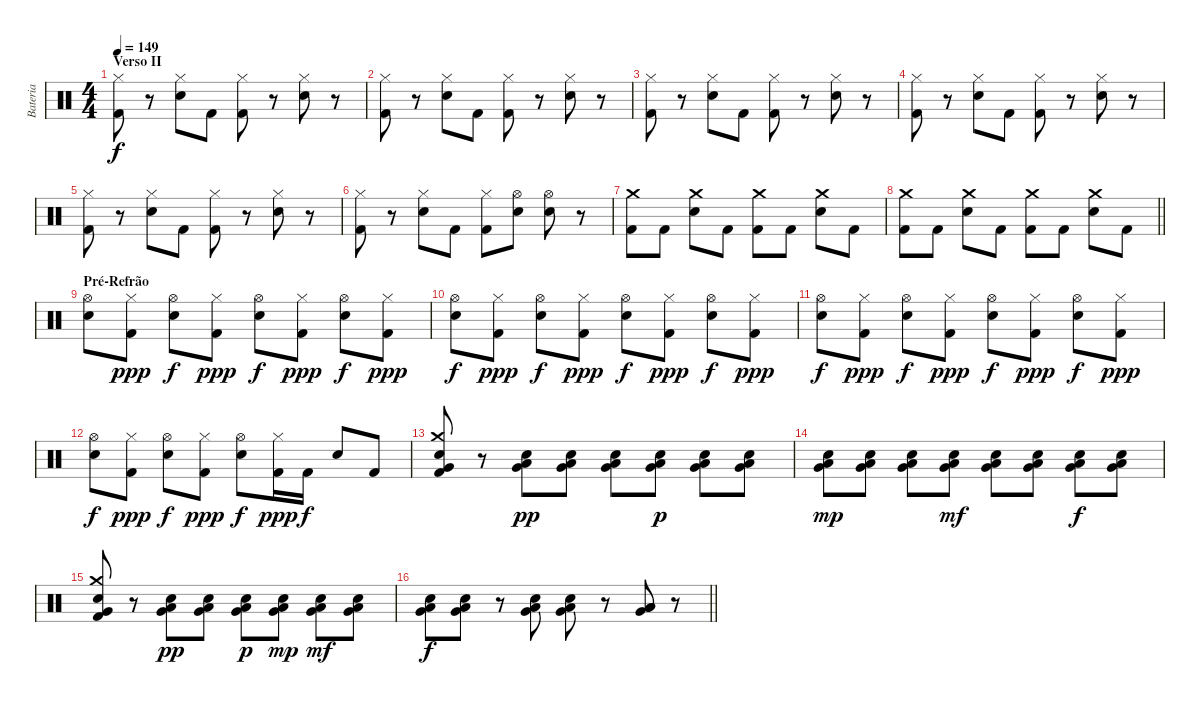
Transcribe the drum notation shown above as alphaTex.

\track ("Bateria" "Bateria") {instrument percussion}
\staff {score}
\articulation defaults
\ts (4 4)
\section ("" "Verso II")
\tempo 149
\clef neutral
\ks c
("Hi-Hat (closed)" "Kick (hit) 2").8{dy f} r.8 ("Hi-Hat (closed)" "Electric Snare (hit)").8 "Kick (hit) 2".8 ("Hi-Hat (closed)" "Kick (hit) 2").8 r.8 ("Hi-Hat (closed)" "Electric Snare (hit)").8 r.8 |
("Hi-Hat (closed)" "Kick (hit) 2").8 r.8 ("Hi-Hat (closed)" "Electric Snare (hit)").8 "Kick (hit) 2".8 ("Hi-Hat (closed)" "Kick (hit) 2").8 r.8 ("Hi-Hat (closed)" "Electric Snare (hit)").8 r.8 |
("Hi-Hat (closed)" "Kick (hit) 2").8 r.8 ("Hi-Hat (closed)" "Electric Snare (hit)").8 "Kick (hit) 2".8 ("Hi-Hat (closed)" "Kick (hit) 2").8 r.8 ("Hi-Hat (closed)" "Electric Snare (hit)").8 r.8 |
("Hi-Hat (closed)" "Kick (hit) 2").8 r.8 ("Hi-Hat (closed)" "Electric Snare (hit)").8 "Kick (hit) 2".8 ("Hi-Hat (closed)" "Kick (hit) 2").8 r.8 ("Hi-Hat (closed)" "Electric Snare (hit)").8 r.8 |
("Hi-Hat (closed)" "Kick (hit) 2").8 r.8 ("Hi-Hat (closed)" "Electric Snare (hit)").8 "Kick (hit) 2".8 ("Hi-Hat (closed)" "Kick (hit) 2").8 r.8 ("Hi-Hat (closed)" "Electric Snare (hit)").8 r.8 |
("Hi-Hat (closed)" "Kick (hit) 2").8 r.8 ("Hi-Hat (closed)" "Electric Snare (hit)").8 "Kick (hit) 2".8 ("Hi-Hat (closed)" "Kick (hit) 2").8 ("Hi-Hat (open)" "Electric Snare (hit)").8 ("Hi-Hat (open)" "Electric Snare (hit)").8 r.8 |
("Crash medium (hit)" "Kick (hit) 2").8 "Kick (hit) 2".8 ("Crash medium (hit)" "Electric Snare (hit)").8 "Kick (hit) 2".8 ("Crash medium (hit)" "Kick (hit) 2").8 "Kick (hit) 2".8 ("Crash medium (hit)" "Electric Snare (hit)").8 "Kick (hit) 2".8 |
\barLineRight lightlight
("Crash medium (hit)" "Kick (hit) 2").8 "Kick (hit) 2".8 ("Crash medium (hit)" "Electric Snare (hit)").8 "Kick (hit) 2".8 ("Crash medium (hit)" "Kick (hit) 2").8 "Kick (hit) 2".8 ("Crash medium (hit)" "Electric Snare (hit)").8 "Kick (hit) 2".8 |
\section ("" "Pré-Refrão")
("Hi-Hat (open)" "Electric Snare (hit)").8 ("Hi-Hat (closed)" "Kick (hit) 2").8{dy ppp} ("Hi-Hat (open)" "Electric Snare (hit)").8{dy f} ("Hi-Hat (closed)" "Kick (hit) 2").8{dy ppp} ("Hi-Hat (open)" "Electric Snare (hit)").8{dy f} ("Hi-Hat (closed)" "Kick (hit) 2").8{dy ppp} ("Hi-Hat (open)" "Electric Snare (hit)").8{dy f} ("Hi-Hat (closed)" "Kick (hit) 2").8{dy ppp} |
("Hi-Hat (open)" "Electric Snare (hit)").8{dy f} ("Hi-Hat (closed)" "Kick (hit) 2").8{dy ppp} ("Hi-Hat (open)" "Electric Snare (hit)").8{dy f} ("Hi-Hat (closed)" "Kick (hit) 2").8{dy ppp} ("Hi-Hat (open)" "Electric Snare (hit)").8{dy f} ("Hi-Hat (closed)" "Kick (hit) 2").8{dy ppp} ("Hi-Hat (open)" "Electric Snare (hit)").8{dy f} ("Hi-Hat (closed)" "Kick (hit) 2").8{dy ppp} |
("Hi-Hat (open)" "Electric Snare (hit)").8{dy f} ("Hi-Hat (closed)" "Kick (hit) 2").8{dy ppp} ("Hi-Hat (open)" "Electric Snare (hit)").8{dy f} ("Hi-Hat (closed)" "Kick (hit) 2").8{dy ppp} ("Hi-Hat (open)" "Electric Snare (hit)").8{dy f} ("Hi-Hat (closed)" "Kick (hit) 2").8{dy ppp} ("Hi-Hat (open)" "Electric Snare (hit)").8{dy f} ("Hi-Hat (closed)" "Kick (hit) 2").8{dy ppp} |
("Hi-Hat (open)" "Electric Snare (hit)").8{dy f} ("Hi-Hat (closed)" "Kick (hit) 2").8{dy ppp} ("Hi-Hat (open)" "Electric Snare (hit)").8{dy f} ("Hi-Hat (closed)" "Kick (hit) 2").8{dy ppp} ("Hi-Hat (open)" "Electric Snare (hit)").8{dy f} ("Hi-Hat (closed)" "Kick (hit) 2").16{dy ppp} "Kick (hit) 2".16{dy f} "Electric Snare (hit)".8 "Kick (hit) 2".8 |
("Crash medium (hit)" "Electric Snare (hit)" "Very Low Tom (hit)" "Kick (hit) 2").8 r.8 ("Electric Snare (hit)" "Very Low Tom (hit)" "Low Floor Tom (hit)").8{dy pp} ("Electric Snare (hit)" "Very Low Tom (hit)" "Low Floor Tom (hit)").8 ("Electric Snare (hit)" "Very Low Tom (hit)" "Low Floor Tom (hit)").8 ("Electric Snare (hit)" "Very Low Tom (hit)" "Low Floor Tom (hit)").8{dy p} ("Electric Snare (hit)" "Very Low Tom (hit)" "Low Floor Tom (hit)").8 ("Electric Snare (hit)" "Very Low Tom (hit)" "Low Floor Tom (hit)").8 |
("Electric Snare (hit)" "Very Low Tom (hit)" "Low Floor Tom (hit)").8{dy mp} ("Electric Snare (hit)" "Very Low Tom (hit)" "Low Floor Tom (hit)").8 ("Electric Snare (hit)" "Very Low Tom (hit)" "Low Floor Tom (hit)").8 ("Electric Snare (hit)" "Very Low Tom (hit)" "Low Floor Tom (hit)").8{dy mf} ("Electric Snare (hit)" "Very Low Tom (hit)" "Low Floor Tom (hit)").8 ("Electric Snare (hit)" "Very Low Tom (hit)" "Low Floor Tom (hit)").8 ("Electric Snare (hit)" "Very Low Tom (hit)" "Low Floor Tom (hit)").8{dy f} ("Electric Snare (hit)" "Very Low Tom (hit)" "Low Floor Tom (hit)").8 |
("Crash medium (hit)" "Electric Snare (hit)" "Very Low Tom (hit)" "Kick (hit) 2").8 r.8 ("Electric Snare (hit)" "Very Low Tom (hit)" "Low Floor Tom (hit)").8{dy pp} ("Electric Snare (hit)" "Very Low Tom (hit)" "Low Floor Tom (hit)").8 ("Electric Snare (hit)" "Very Low Tom (hit)" "Low Floor Tom (hit)").8{dy p} ("Electric Snare (hit)" "Very Low Tom (hit)" "Low Floor Tom (hit)").8{dy mp} ("Electric Snare (hit)" "Very Low Tom (hit)" "Low Floor Tom (hit)").8{dy mf} ("Electric Snare (hit)" "Very Low Tom (hit)" "Low Floor Tom (hit)").8 |
\barLineRight lightlight
("Electric Snare (hit)" "Very Low Tom (hit)" "Low Floor Tom (hit)").8{dy f} ("Electric Snare (hit)" "Very Low Tom (hit)" "Low Floor Tom (hit)").8 r.8 ("Electric Snare (hit)" "Very Low Tom (hit)" "Low Floor Tom (hit)").8 ("Electric Snare (hit)" "Very Low Tom (hit)" "Low Floor Tom (hit)").8 r.8 ("Low Tom (hit)" "Very Low Tom (hit)" "Low Floor Tom (hit)").8 r.8
